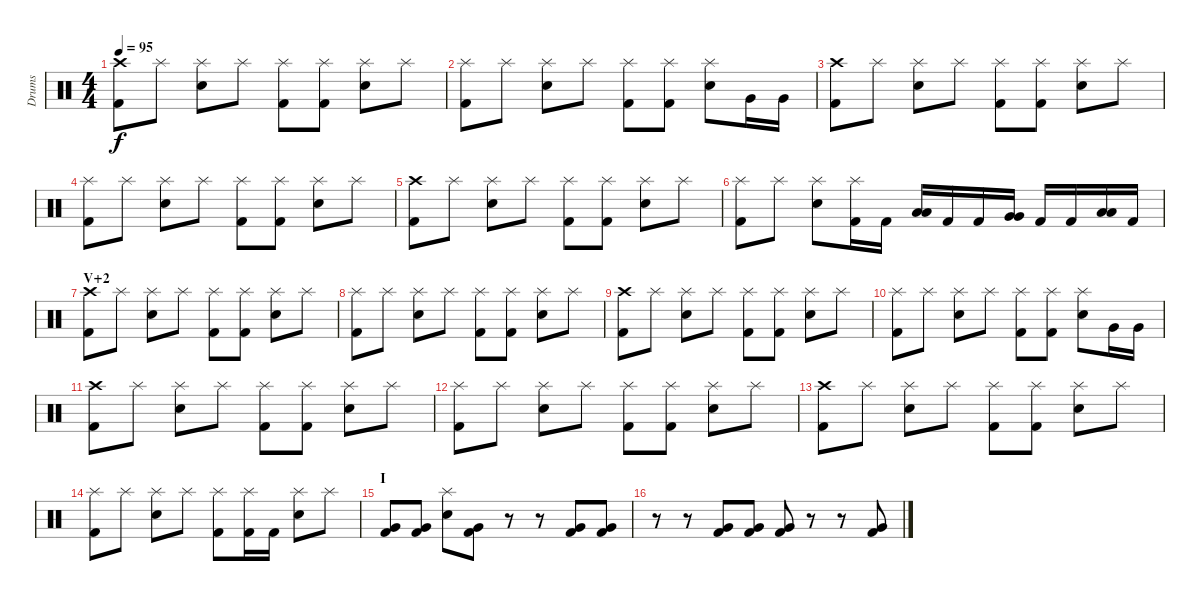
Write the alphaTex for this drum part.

\track ("Drums" "Drums") {instrument percussion}
\staff {score}
\articulation defaults
\ts (4 4)
\tempo 95
\clef neutral
\ks c
("Crash high (hit)" "Kick (hit) 2").8{dy f} "Splash (hit)".8 ("Splash (hit)" "Electric Snare (hit)").8 "Splash (hit)".8 ("Splash (hit)" "Kick (hit) 2").8 ("Splash (hit)" "Kick (hit) 2").8 ("Splash (hit)" "Electric Snare (hit)").8 "Splash (hit)".8 |
("Splash (hit)" "Kick (hit) 2").8 "Splash (hit)".8 ("Splash (hit)" "Electric Snare (hit)").8 "Splash (hit)".8 ("Splash (hit)" "Kick (hit) 2").8 ("Splash (hit)" "Kick (hit) 2").8 ("Splash (hit)" "Electric Snare (hit)").8 "Very Low Tom (hit)".16 "Very Low Tom (hit)".16 |
("Crash high (hit)" "Kick (hit) 2").8 "Splash (hit)".8 ("Splash (hit)" "Electric Snare (hit)").8 "Splash (hit)".8 ("Splash (hit)" "Kick (hit) 2").8 ("Splash (hit)" "Kick (hit) 2").8 ("Splash (hit)" "Electric Snare (hit)").8 "Splash (hit)".8 |
("Splash (hit)" "Kick (hit) 2").8 "Splash (hit)".8 ("Splash (hit)" "Electric Snare (hit)").8 "Splash (hit)".8 ("Splash (hit)" "Kick (hit) 2").8 ("Splash (hit)" "Kick (hit) 2").8 ("Splash (hit)" "Electric Snare (hit)").8 "Splash (hit)".8 |
("Crash high (hit)" "Kick (hit) 2").8 "Splash (hit)".8 ("Splash (hit)" "Electric Snare (hit)").8 "Splash (hit)".8 ("Splash (hit)" "Kick (hit) 2").8 ("Splash (hit)" "Kick (hit) 2").8 ("Splash (hit)" "Electric Snare (hit)").8 "Splash (hit)".8 |
("Splash (hit)" "Kick (hit) 2").8 "Splash (hit)".8 ("Splash (hit)" "Electric Snare (hit)").8 ("Splash (hit)" "Kick (hit) 2").16 "Kick (hit) 2".16 ("Low Tom (hit)" "Low Tom (hit)").16{bd 60} "Kick (hit) 2".16 "Kick (hit) 2".16 ("Very Low Tom (hit)" "Very Low Tom (hit)").16{bd 60} "Kick (hit) 2".16 "Kick (hit) 2".16 ("Low Floor Tom (hit)" "Low Floor Tom (hit)").16{bd 60} "Kick (hit) 2".16 |
\section ("" "V+2")
("Crash high (hit)" "Kick (hit) 2").8 "Splash (hit)".8 ("Splash (hit)" "Electric Snare (hit)").8 "Splash (hit)".8 ("Splash (hit)" "Kick (hit) 2").8 ("Splash (hit)" "Kick (hit) 2").8 ("Splash (hit)" "Electric Snare (hit)").8 "Splash (hit)".8 |
("Splash (hit)" "Kick (hit) 2").8 "Splash (hit)".8 ("Splash (hit)" "Electric Snare (hit)").8 "Splash (hit)".8 ("Splash (hit)" "Kick (hit) 2").8 ("Splash (hit)" "Kick (hit) 2").8 ("Splash (hit)" "Electric Snare (hit)").8 "Splash (hit)".8 |
("Crash high (hit)" "Kick (hit) 2").8 "Splash (hit)".8 ("Splash (hit)" "Electric Snare (hit)").8 "Splash (hit)".8 ("Splash (hit)" "Kick (hit) 2").8 ("Splash (hit)" "Kick (hit) 2").8 ("Splash (hit)" "Electric Snare (hit)").8 "Splash (hit)".8 |
("Splash (hit)" "Kick (hit) 2").8 "Splash (hit)".8 ("Splash (hit)" "Electric Snare (hit)").8 "Splash (hit)".8 ("Splash (hit)" "Kick (hit) 2").8 ("Splash (hit)" "Kick (hit) 2").8 ("Splash (hit)" "Electric Snare (hit)").8 "Very Low Tom (hit)".16 "Very Low Tom (hit)".16 |
("Crash high (hit)" "Kick (hit) 2").8 "Splash (hit)".8 ("Splash (hit)" "Electric Snare (hit)").8 "Splash (hit)".8 ("Splash (hit)" "Kick (hit) 2").8 ("Splash (hit)" "Kick (hit) 2").8 ("Splash (hit)" "Electric Snare (hit)").8 "Splash (hit)".8 |
("Splash (hit)" "Kick (hit) 2").8 "Splash (hit)".8 ("Splash (hit)" "Electric Snare (hit)").8 "Splash (hit)".8 ("Splash (hit)" "Kick (hit) 2").8 ("Splash (hit)" "Kick (hit) 2").8 ("Splash (hit)" "Electric Snare (hit)").8 "Splash (hit)".8 |
("Crash high (hit)" "Kick (hit) 2").8 "Splash (hit)".8 ("Splash (hit)" "Electric Snare (hit)").8 "Splash (hit)".8 ("Splash (hit)" "Kick (hit) 2").8 ("Splash (hit)" "Kick (hit) 2").8 ("Splash (hit)" "Electric Snare (hit)").8 "Splash (hit)".8 |
("Splash (hit)" "Kick (hit) 2").8 "Splash (hit)".8 ("Splash (hit)" "Electric Snare (hit)").8 "Splash (hit)".8 ("Splash (hit)" "Kick (hit) 2").8 ("Splash (hit)" "Kick (hit) 2").16 "Kick (hit) 2".16 ("Splash (hit)" "Electric Snare (hit)").8 "Splash (hit)".8 |
\section ("" "I")
("Kick (hit) 2" "Very Low Tom (hit)").8 ("Kick (hit) 2" "Very Low Tom (hit)").8 ("Splash (hit)" "Electric Snare (hit)").8 ("Kick (hit) 2" "Very Low Tom (hit)").8 r.8 r.8 ("Very Low Tom (hit)" "Kick (hit) 2").8 ("Very Low Tom (hit)" "Kick (hit) 2").8 |
r.8 r.8 ("Very Low Tom (hit)" "Kick (hit) 2").8 ("Very Low Tom (hit)" "Kick (hit) 2").8 ("Very Low Tom (hit)" "Kick (hit) 2").8 r.8 r.8 ("Very Low Tom (hit)" "Kick (hit) 2").8
